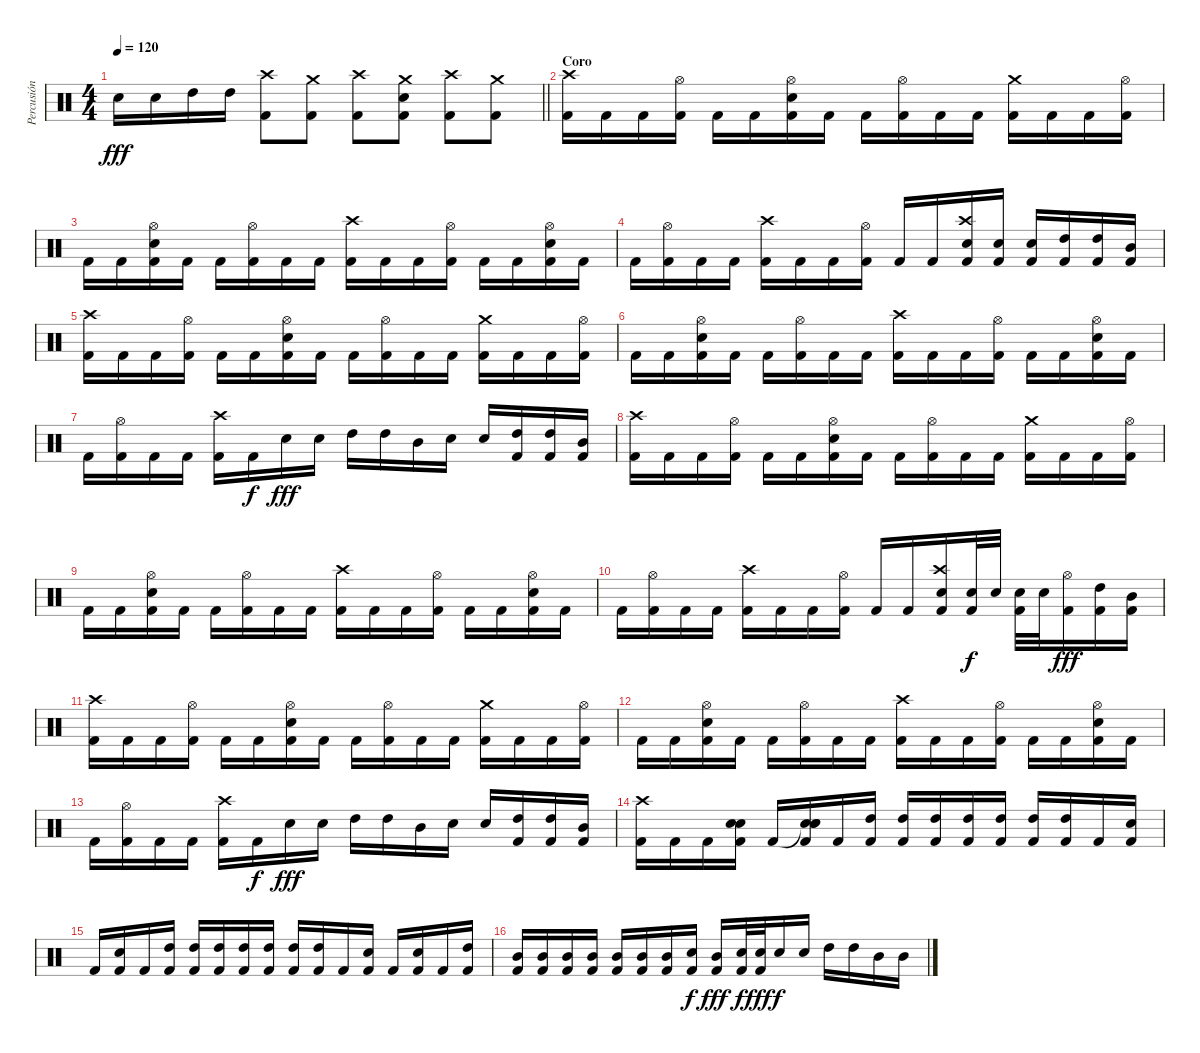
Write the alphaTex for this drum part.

\track ("Percusión" "Percusión") {instrument percussion}
\staff {score}
\articulation defaults
\ts (4 4)
\tempo 120
\clef neutral
\barLineRight lightlight
\ks c "Electric Snare (hit)".16{dy fff} "Electric Snare (hit)".16 "High Tom (hit)".16 "High Tom (hit)".16
("Crash high (hit)" "Kick (hit) 2").8 ("Crash medium (hit)" "Kick (hit) 2").8 ("Crash high (hit)" "Kick (hit) 2").8 ("Crash medium (hit)" "Electric Snare (hit)" "Kick (hit) 2").8 ("Crash high (hit)" "Kick (hit) 2").8 ("Crash medium (hit)" "Kick (hit) 2").8 |
\section ("" "Coro")
("Crash high (hit)" "Kick (hit) 2").16 "Kick (hit) 2".16 "Kick (hit) 2".16 ("Hi-Hat (open)" "Kick (hit) 2").16 "Kick (hit) 2".16 "Kick (hit) 2".16 ("Hi-Hat (open)" "Electric Snare (hit)" "Kick (hit) 2").16 "Kick (hit) 2".16 "Kick (hit) 2".16 ("Hi-Hat (open)" "Kick (hit) 2").16 "Kick (hit) 2".16 "Kick (hit) 2".16 ("Crash medium (hit)" "Kick (hit) 2").16 "Kick (hit) 2".16 "Kick (hit) 2".16 ("Hi-Hat (open)" "Kick (hit) 2").16 |
"Kick (hit) 2".16 "Kick (hit) 2".16 ("Hi-Hat (open)" "Electric Snare (hit)" "Kick (hit) 2").16 "Kick (hit) 2".16 "Kick (hit) 2".16 ("Hi-Hat (open)" "Kick (hit) 2").16 "Kick (hit) 2".16 "Kick (hit) 2".16 ("Crash high (hit)" "Kick (hit) 2").16 "Kick (hit) 2".16 "Kick (hit) 2".16 ("Hi-Hat (open)" "Kick (hit) 2").16 "Kick (hit) 2".16 "Kick (hit) 2".16 ("Hi-Hat (open)" "Electric Snare (hit)" "Kick (hit) 2").16 "Kick (hit) 2".16 |
"Kick (hit) 2".16 ("Hi-Hat (open)" "Kick (hit) 2").16 "Kick (hit) 2".16 "Kick (hit) 2".16 ("Crash high (hit)" "Kick (hit) 2").16 "Kick (hit) 2".16 "Kick (hit) 2".16 ("Hi-Hat (open)" "Kick (hit) 2").16 "Kick (hit) 2".16 "Kick (hit) 2".16 ("Crash high (hit)" "Electric Snare (hit)" "Kick (hit) 2").16 ("Electric Snare (hit)" "Kick (hit) 2").16 ("Electric Snare (hit)" "Kick (hit) 2").16 ("High Tom (hit)" "Kick (hit) 2").16 ("High Tom (hit)" "Kick (hit) 2").16 ("Mid Tom (hit)" "Kick (hit) 2").16 |
("Crash high (hit)" "Kick (hit) 2").16 "Kick (hit) 2".16 "Kick (hit) 2".16 ("Hi-Hat (open)" "Kick (hit) 2").16 "Kick (hit) 2".16 "Kick (hit) 2".16 ("Hi-Hat (open)" "Electric Snare (hit)" "Kick (hit) 2").16 "Kick (hit) 2".16 "Kick (hit) 2".16 ("Hi-Hat (open)" "Kick (hit) 2").16 "Kick (hit) 2".16 "Kick (hit) 2".16 ("Crash medium (hit)" "Kick (hit) 2").16 "Kick (hit) 2".16 "Kick (hit) 2".16 ("Hi-Hat (open)" "Kick (hit) 2").16 |
"Kick (hit) 2".16 "Kick (hit) 2".16 ("Hi-Hat (open)" "Electric Snare (hit)" "Kick (hit) 2").16 "Kick (hit) 2".16 "Kick (hit) 2".16 ("Hi-Hat (open)" "Kick (hit) 2").16 "Kick (hit) 2".16 "Kick (hit) 2".16 ("Crash high (hit)" "Kick (hit) 2").16 "Kick (hit) 2".16 "Kick (hit) 2".16 ("Hi-Hat (open)" "Kick (hit) 2").16 "Kick (hit) 2".16 "Kick (hit) 2".16 ("Hi-Hat (open)" "Electric Snare (hit)" "Kick (hit) 2").16 "Kick (hit) 2".16 |
"Kick (hit) 2".16 ("Hi-Hat (open)" "Kick (hit) 2").16 "Kick (hit) 2".16 "Kick (hit) 2".16 ("Crash high (hit)" "Kick (hit) 2").16 "Kick (hit) 2".16{dy f} "Electric Snare (hit)".16{dy fff} "Electric Snare (hit)".16 "High Tom (hit)".16 "High Tom (hit)".16 "Mid Tom (hit)".16 "Electric Snare (hit)".16 "Electric Snare (hit)".16 ("High Tom (hit)" "Kick (hit) 2").16 ("High Tom (hit)" "Kick (hit) 2").16 ("Mid Tom (hit)" "Kick (hit) 2").16 |
("Crash high (hit)" "Kick (hit) 2").16 "Kick (hit) 2".16 "Kick (hit) 2".16 ("Hi-Hat (open)" "Kick (hit) 2").16 "Kick (hit) 2".16 "Kick (hit) 2".16 ("Hi-Hat (open)" "Electric Snare (hit)" "Kick (hit) 2").16 "Kick (hit) 2".16 "Kick (hit) 2".16 ("Hi-Hat (open)" "Kick (hit) 2").16 "Kick (hit) 2".16 "Kick (hit) 2".16 ("Crash medium (hit)" "Kick (hit) 2").16 "Kick (hit) 2".16 "Kick (hit) 2".16 ("Hi-Hat (open)" "Kick (hit) 2").16 |
"Kick (hit) 2".16 "Kick (hit) 2".16 ("Hi-Hat (open)" "Electric Snare (hit)" "Kick (hit) 2").16 "Kick (hit) 2".16 "Kick (hit) 2".16 ("Hi-Hat (open)" "Kick (hit) 2").16 "Kick (hit) 2".16 "Kick (hit) 2".16 ("Crash high (hit)" "Kick (hit) 2").16 "Kick (hit) 2".16 "Kick (hit) 2".16 ("Hi-Hat (open)" "Kick (hit) 2").16 "Kick (hit) 2".16 "Kick (hit) 2".16 ("Hi-Hat (open)" "Electric Snare (hit)" "Kick (hit) 2").16 "Kick (hit) 2".16 |
"Kick (hit) 2".16 ("Hi-Hat (open)" "Kick (hit) 2").16 "Kick (hit) 2".16 "Kick (hit) 2".16 ("Crash high (hit)" "Kick (hit) 2").16 "Kick (hit) 2".16 "Kick (hit) 2".16 ("Hi-Hat (open)" "Kick (hit) 2").16 "Kick (hit) 2".16 "Kick (hit) 2".16 ("Crash high (hit)" "Electric Snare (hit)" "Kick (hit) 2").16 ("Electric Snare (hit)" "Kick (hit) 2").32{dy f} "Electric Snare (hit)".32 ("Electric Snare (hit)" "Kick (hit) 2").32 "Electric Snare (hit)".32 ("Hi-Hat (open)" "Kick (hit) 2").16{dy fff} ("High Tom (hit)" "Kick (hit) 2").16 ("Mid Tom (hit)" "Kick (hit) 2").16 |
("Crash high (hit)" "Kick (hit) 2").16 "Kick (hit) 2".16 "Kick (hit) 2".16 ("Hi-Hat (open)" "Kick (hit) 2").16 "Kick (hit) 2".16 "Kick (hit) 2".16 ("Hi-Hat (open)" "Electric Snare (hit)" "Kick (hit) 2").16 "Kick (hit) 2".16 "Kick (hit) 2".16 ("Hi-Hat (open)" "Kick (hit) 2").16 "Kick (hit) 2".16 "Kick (hit) 2".16 ("Crash medium (hit)" "Kick (hit) 2").16 "Kick (hit) 2".16 "Kick (hit) 2".16 ("Hi-Hat (open)" "Kick (hit) 2").16 |
"Kick (hit) 2".16 "Kick (hit) 2".16 ("Hi-Hat (open)" "Electric Snare (hit)" "Kick (hit) 2").16 "Kick (hit) 2".16 "Kick (hit) 2".16 ("Hi-Hat (open)" "Kick (hit) 2").16 "Kick (hit) 2".16 "Kick (hit) 2".16 ("Crash high (hit)" "Kick (hit) 2").16 "Kick (hit) 2".16 "Kick (hit) 2".16 ("Hi-Hat (open)" "Kick (hit) 2").16 "Kick (hit) 2".16 "Kick (hit) 2".16 ("Hi-Hat (open)" "Electric Snare (hit)" "Kick (hit) 2").16 "Kick (hit) 2".16 |
"Kick (hit) 2".16 ("Hi-Hat (open)" "Kick (hit) 2").16 "Kick (hit) 2".16 "Kick (hit) 2".16 ("Crash high (hit)" "Kick (hit) 2").16 "Kick (hit) 2".16{dy f} "Electric Snare (hit)".16{dy fff} "Electric Snare (hit)".16 "High Tom (hit)".16 "High Tom (hit)".16 "Mid Tom (hit)".16 "Electric Snare (hit)".16 "Electric Snare (hit)".16 ("High Tom (hit)" "Kick (hit) 2").16 ("High Tom (hit)" "Kick (hit) 2").16 ("Mid Tom (hit)" "Kick (hit) 2").16 |
("Crash high (hit)" "Kick (hit) 2").16 "Kick (hit) 2".16 "Kick (hit) 2".16 ("Electric Snare (hit)" "Electric Snare (hit)" "Kick (hit) 2").16 "Kick (hit) 2".16 ("Snare (hit)"{t} "Electric Snare (hit)" "Electric Snare (hit)" "Kick (hit) 2").16 "Kick (hit) 2".16 ("High Tom (hit)" "Kick (hit) 2").16 ("High Tom (hit)" "Kick (hit) 2").16 ("High Tom (hit)" "Kick (hit) 2").16 ("High Tom (hit)" "Kick (hit) 2").16 ("High Tom (hit)" "Kick (hit) 2").16 ("High Tom (hit)" "Kick (hit) 2").16 ("High Tom (hit)" "Kick (hit) 2").16 "Kick (hit) 2".16 ("Electric Snare (hit)" "Kick (hit) 2").16 |
"Kick (hit) 2".16 ("Electric Snare (hit)" "Kick (hit) 2").16 "Kick (hit) 2".16 ("High Tom (hit)" "Kick (hit) 2").16 ("High Tom (hit)" "Kick (hit) 2").16 ("High Tom (hit)" "Kick (hit) 2").16 ("High Tom (hit)" "Kick (hit) 2").16 ("High Tom (hit)" "Kick (hit) 2").16 ("High Tom (hit)" "Kick (hit) 2").16 ("High Tom (hit)" "Kick (hit) 2").16 "Kick (hit) 2".16 ("Electric Snare (hit)" "Kick (hit) 2").16 "Kick (hit) 2".16 ("Electric Snare (hit)" "Kick (hit) 2").16 "Kick (hit) 2".16 ("High Tom (hit)" "Kick (hit) 2").16 |
("Mid Tom (hit)" "Kick (hit) 2").16 ("Mid Tom (hit)" "Kick (hit) 2").16 ("Mid Tom (hit)" "Kick (hit) 2").16 ("Mid Tom (hit)" "Kick (hit) 2").16 ("Mid Tom (hit)" "Kick (hit) 2").16 ("Mid Tom (hit)" "Kick (hit) 2").16 ("Mid Tom (hit)" "Kick (hit) 2").16 ("Electric Snare (hit)" "Kick (hit) 2").16{dy f} ("Mid Tom (hit)" "Kick (hit) 2").16{dy fff} ("Electric Snare (hit)" "Kick (hit) 2").32{dy f} ("Electric Snare (hit)" "Kick (hit) 2").32{dy fff} "Electric Snare (hit)".16{dy f} "Electric Snare (hit)".16 "High Tom (hit)".16 "High Tom (hit)".16 "Mid Tom (hit)".16 "Mid Tom (hit)".16
